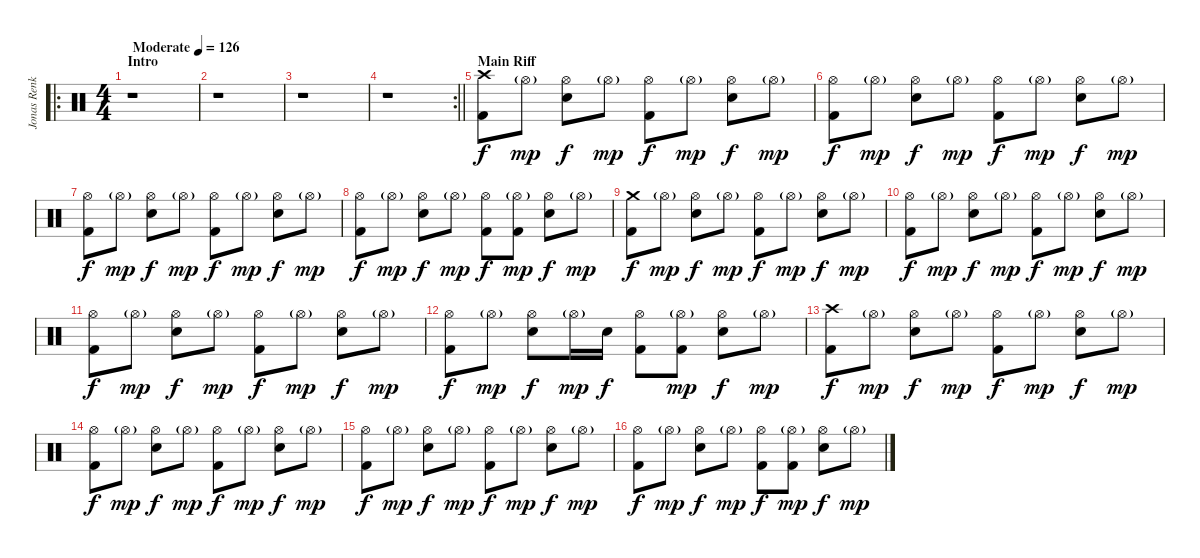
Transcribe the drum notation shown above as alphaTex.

\track ("Jonas Renkse" "Jonas Renk") {instrument percussion}
\staff {score}
\articulation defaults
\ro
\ts (4 4)
\section ("" "Intro")
\tempo (126 "Moderate")
\clef neutral
\ks c
r.1{dy f} |
r.1 |
r.1 |
\rc 2
\barLineRight lightlight
r.1 |
\section ("" "Main Riff")
("Crash high (hit)" "Kick (hit) 2").8 "Hi-Hat (open)"{g}.8{dy mp} ("Hi-Hat (open)" "Electric Snare (hit)").8{dy f} "Hi-Hat (open)"{g}.8{dy mp} ("Hi-Hat (open)" "Kick (hit) 2").8{dy f} "Hi-Hat (open)"{g}.8{dy mp} ("Hi-Hat (open)" "Electric Snare (hit)").8{dy f} "Hi-Hat (open)"{g}.8{dy mp} |
("Hi-Hat (open)" "Kick (hit) 2").8{dy f} "Hi-Hat (open)"{g}.8{dy mp} ("Hi-Hat (open)" "Electric Snare (hit)").8{dy f} "Hi-Hat (open)"{g}.8{dy mp} ("Hi-Hat (open)" "Kick (hit) 2").8{dy f} "Hi-Hat (open)"{g}.8{dy mp} ("Hi-Hat (open)" "Electric Snare (hit)").8{dy f} "Hi-Hat (open)"{g}.8{dy mp} |
("Hi-Hat (open)" "Kick (hit) 2").8{dy f} "Hi-Hat (open)"{g}.8{dy mp} ("Hi-Hat (open)" "Electric Snare (hit)").8{dy f} "Hi-Hat (open)"{g}.8{dy mp} ("Hi-Hat (open)" "Kick (hit) 2").8{dy f} "Hi-Hat (open)"{g}.8{dy mp} ("Hi-Hat (open)" "Electric Snare (hit)").8{dy f} "Hi-Hat (open)"{g}.8{dy mp} |
("Hi-Hat (open)" "Kick (hit) 2").8{dy f} "Hi-Hat (open)"{g}.8{dy mp} ("Hi-Hat (open)" "Electric Snare (hit)").8{dy f} "Hi-Hat (open)"{g}.8{dy mp} ("Hi-Hat (open)" "Kick (hit) 2").8{dy f} ("Hi-Hat (open)"{g} "Kick (hit) 2").8{dy mp} ("Hi-Hat (open)" "Electric Snare (hit)").8{dy f} "Hi-Hat (open)"{g}.8{dy mp} |
("Crash medium (hit)" "Kick (hit) 2").8{dy f} "Hi-Hat (open)"{g}.8{dy mp} ("Hi-Hat (open)" "Electric Snare (hit)").8{dy f} "Hi-Hat (open)"{g}.8{dy mp} ("Hi-Hat (open)" "Kick (hit) 2").8{dy f} "Hi-Hat (open)"{g}.8{dy mp} ("Hi-Hat (open)" "Electric Snare (hit)").8{dy f} "Hi-Hat (open)"{g}.8{dy mp} |
("Hi-Hat (open)" "Kick (hit) 2").8{dy f} "Hi-Hat (open)"{g}.8{dy mp} ("Hi-Hat (open)" "Electric Snare (hit)").8{dy f} "Hi-Hat (open)"{g}.8{dy mp} ("Hi-Hat (open)" "Kick (hit) 2").8{dy f} "Hi-Hat (open)"{g}.8{dy mp} ("Hi-Hat (open)" "Electric Snare (hit)").8{dy f} "Hi-Hat (open)"{g}.8{dy mp} |
("Hi-Hat (open)" "Kick (hit) 2").8{dy f} "Hi-Hat (open)"{g}.8{dy mp} ("Hi-Hat (open)" "Electric Snare (hit)").8{dy f} "Hi-Hat (open)"{g}.8{dy mp} ("Hi-Hat (open)" "Kick (hit) 2").8{dy f} "Hi-Hat (open)"{g}.8{dy mp} ("Hi-Hat (open)" "Electric Snare (hit)").8{dy f} "Hi-Hat (open)"{g}.8{dy mp} |
("Hi-Hat (open)" "Kick (hit) 2").8{dy f} "Hi-Hat (open)"{g}.8{dy mp} ("Hi-Hat (open)" "Electric Snare (hit)").8{dy f} "Hi-Hat (open)"{g}.16{dy mp} "Electric Snare (hit)".16{dy f} ("Hi-Hat (open)" "Kick (hit) 2").8 ("Hi-Hat (open)"{g} "Kick (hit) 2").8{dy mp} ("Hi-Hat (open)" "Electric Snare (hit)").8{dy f} "Hi-Hat (open)"{g}.8{dy mp} |
("Crash high (hit)" "Kick (hit) 2").8{dy f} "Hi-Hat (open)"{g}.8{dy mp} ("Hi-Hat (open)" "Electric Snare (hit)").8{dy f} "Hi-Hat (open)"{g}.8{dy mp} ("Hi-Hat (open)" "Kick (hit) 2").8{dy f} "Hi-Hat (open)"{g}.8{dy mp} ("Hi-Hat (open)" "Electric Snare (hit)").8{dy f} "Hi-Hat (open)"{g}.8{dy mp} |
("Hi-Hat (open)" "Kick (hit) 2").8{dy f} "Hi-Hat (open)"{g}.8{dy mp} ("Hi-Hat (open)" "Electric Snare (hit)").8{dy f} "Hi-Hat (open)"{g}.8{dy mp} ("Hi-Hat (open)" "Kick (hit) 2").8{dy f} "Hi-Hat (open)"{g}.8{dy mp} ("Hi-Hat (open)" "Electric Snare (hit)").8{dy f} "Hi-Hat (open)"{g}.8{dy mp} |
("Hi-Hat (open)" "Kick (hit) 2").8{dy f} "Hi-Hat (open)"{g}.8{dy mp} ("Hi-Hat (open)" "Electric Snare (hit)").8{dy f} "Hi-Hat (open)"{g}.8{dy mp} ("Hi-Hat (open)" "Kick (hit) 2").8{dy f} "Hi-Hat (open)"{g}.8{dy mp} ("Hi-Hat (open)" "Electric Snare (hit)").8{dy f} "Hi-Hat (open)"{g}.8{dy mp} |
("Hi-Hat (open)" "Kick (hit) 2").8{dy f} "Hi-Hat (open)"{g}.8{dy mp} ("Hi-Hat (open)" "Electric Snare (hit)").8{dy f} "Hi-Hat (open)"{g}.8{dy mp} ("Hi-Hat (open)" "Kick (hit) 2").8{dy f} ("Hi-Hat (open)"{g} "Kick (hit) 2").8{dy mp} ("Hi-Hat (open)" "Electric Snare (hit)").8{dy f} "Hi-Hat (open)"{g}.8{dy mp}
